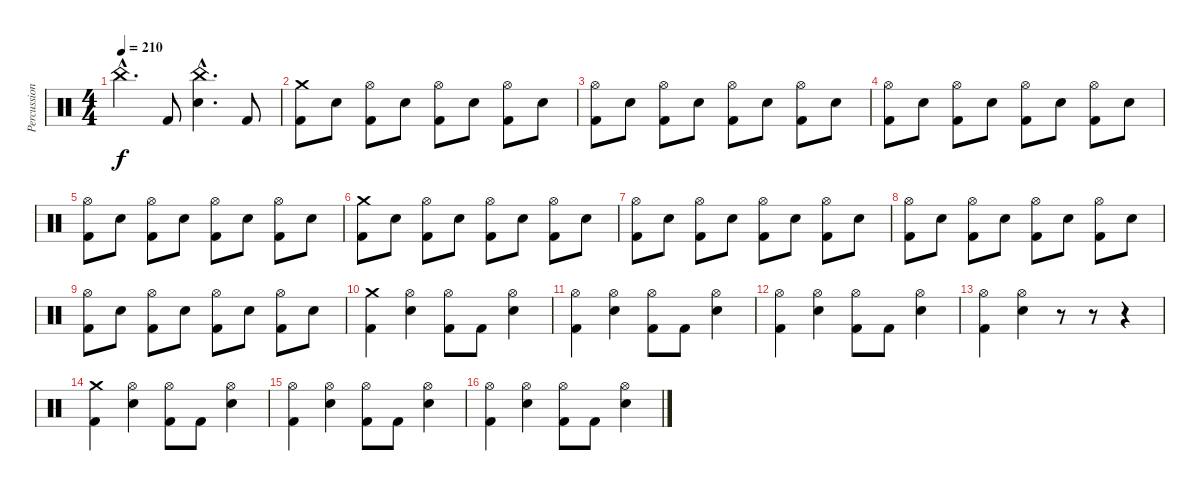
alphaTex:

\track ("Percussion" "Percussion") {instrument percussion}
\staff {score}
\articulation defaults
\ts (4 4)
\tempo 210
\clef neutral
\ks c "China (hit)"{hac}.4{d dy f} "Kick (hit) 2".8
("China (hit)"{hac} "Electric Snare (hit)"{hac}).4{d} "Kick (hit) 2".8 |
("Crash medium (hit)" "Kick (hit) 2").8 "Electric Snare (hit)".8 ("Hi-Hat (open)" "Kick (hit) 2").8 "Electric Snare (hit)".8 ("Hi-Hat (open)" "Kick (hit) 2").8 "Electric Snare (hit)".8 ("Hi-Hat (open)" "Kick (hit) 2").8 "Electric Snare (hit)".8 |
("Hi-Hat (open)" "Kick (hit) 2").8 "Electric Snare (hit)".8 ("Hi-Hat (open)" "Kick (hit) 2").8 "Electric Snare (hit)".8 ("Hi-Hat (open)" "Kick (hit) 2").8 "Electric Snare (hit)".8 ("Hi-Hat (open)" "Kick (hit) 2").8 "Electric Snare (hit)".8 |
("Hi-Hat (open)" "Kick (hit) 2").8 "Electric Snare (hit)".8 ("Hi-Hat (open)" "Kick (hit) 2").8 "Electric Snare (hit)".8 ("Hi-Hat (open)" "Kick (hit) 2").8 "Electric Snare (hit)".8 ("Hi-Hat (open)" "Kick (hit) 2").8 "Electric Snare (hit)".8 |
("Hi-Hat (open)" "Kick (hit) 2").8 "Electric Snare (hit)".8 ("Hi-Hat (open)" "Kick (hit) 2").8 "Electric Snare (hit)".8 ("Hi-Hat (open)" "Kick (hit) 2").8 "Electric Snare (hit)".8 ("Hi-Hat (open)" "Kick (hit) 2").8 "Electric Snare (hit)".8 |
("Crash medium (hit)" "Kick (hit) 2").8 "Electric Snare (hit)".8 ("Hi-Hat (open)" "Kick (hit) 2").8 "Electric Snare (hit)".8 ("Hi-Hat (open)" "Kick (hit) 2").8 "Electric Snare (hit)".8 ("Hi-Hat (open)" "Kick (hit) 2").8 "Electric Snare (hit)".8 |
("Hi-Hat (open)" "Kick (hit) 2").8 "Electric Snare (hit)".8 ("Hi-Hat (open)" "Kick (hit) 2").8 "Electric Snare (hit)".8 ("Hi-Hat (open)" "Kick (hit) 2").8 "Electric Snare (hit)".8 ("Hi-Hat (open)" "Kick (hit) 2").8 "Electric Snare (hit)".8 |
("Hi-Hat (open)" "Kick (hit) 2").8 "Electric Snare (hit)".8 ("Hi-Hat (open)" "Kick (hit) 2").8 "Electric Snare (hit)".8 ("Hi-Hat (open)" "Kick (hit) 2").8 "Electric Snare (hit)".8 ("Hi-Hat (open)" "Kick (hit) 2").8 "Electric Snare (hit)".8 |
("Hi-Hat (open)" "Kick (hit) 2").8 "Electric Snare (hit)".8 ("Hi-Hat (open)" "Kick (hit) 2").8 "Electric Snare (hit)".8 ("Hi-Hat (open)" "Kick (hit) 2").8 "Electric Snare (hit)".8 ("Hi-Hat (open)" "Kick (hit) 2").8 "Electric Snare (hit)".8 |
("Crash medium (hit)" "Kick (hit) 2").4 ("Hi-Hat (open)" "Electric Snare (hit)").4 ("Hi-Hat (open)" "Kick (hit) 2").8 "Kick (hit) 2".8 ("Hi-Hat (open)" "Electric Snare (hit)").4 |
("Hi-Hat (open)" "Kick (hit) 2").4 ("Hi-Hat (open)" "Electric Snare (hit)").4 ("Hi-Hat (open)" "Kick (hit) 2").8 "Kick (hit) 2".8 ("Hi-Hat (open)" "Electric Snare (hit)").4 |
("Hi-Hat (open)" "Kick (hit) 2").4 ("Hi-Hat (open)" "Electric Snare (hit)").4 ("Hi-Hat (open)" "Kick (hit) 2").8 "Kick (hit) 2".8 ("Hi-Hat (open)" "Electric Snare (hit)").4 |
("Hi-Hat (open)" "Kick (hit) 2").4 ("Hi-Hat (open)" "Electric Snare (hit)").4 r.8 r.8 r.4 |
("Crash medium (hit)" "Kick (hit) 2").4 ("Hi-Hat (open)" "Electric Snare (hit)").4 ("Hi-Hat (open)" "Kick (hit) 2").8 "Kick (hit) 2".8 ("Hi-Hat (open)" "Electric Snare (hit)").4 |
("Hi-Hat (open)" "Kick (hit) 2").4 ("Hi-Hat (open)" "Electric Snare (hit)").4 ("Hi-Hat (open)" "Kick (hit) 2").8 "Kick (hit) 2".8 ("Hi-Hat (open)" "Electric Snare (hit)").4 |
("Hi-Hat (open)" "Kick (hit) 2").4 ("Hi-Hat (open)" "Electric Snare (hit)").4 ("Hi-Hat (open)" "Kick (hit) 2").8 "Kick (hit) 2".8 ("Hi-Hat (open)" "Electric Snare (hit)").4
